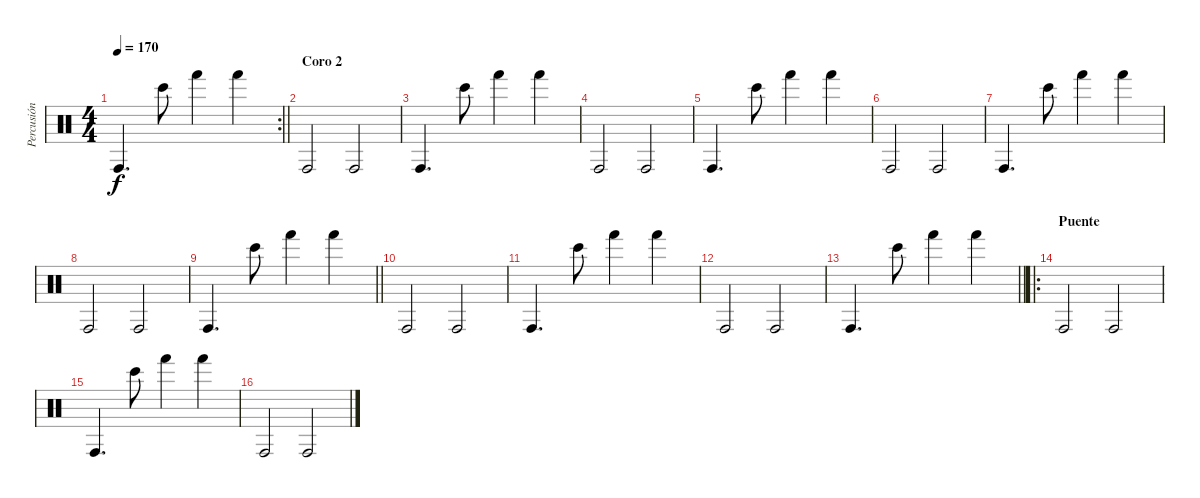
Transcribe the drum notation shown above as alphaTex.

\track ("Percusión" "Percusión") {instrument percussion}
\staff {score}
\articulation defaults
\rc 2
\ts (4 4)
\tempo 170
\clef neutral
\barLineRight lightlight
\ks c "Conga high (hit)".4{d dy f} "Bongo High (hit)".8 "Hand (hit)".4 "Hand (hit)".4
|
\section ("" "Coro 2")
"Conga high (hit)".2 "Conga high (hit)".2 |
"Conga high (hit)".4{d} "Bongo High (hit)".8 "Hand (hit)".4 "Hand (hit)".4 |
"Conga high (hit)".2 "Conga high (hit)".2 |
"Conga high (hit)".4{d} "Bongo High (hit)".8 "Hand (hit)".4 "Hand (hit)".4 |
"Conga high (hit)".2 "Conga high (hit)".2 |
"Conga high (hit)".4{d} "Bongo High (hit)".8 "Hand (hit)".4 "Hand (hit)".4 |
"Conga high (hit)".2 "Conga high (hit)".2 |
\barLineRight lightlight "Conga high (hit)".4{d} "Bongo High (hit)".8 "Hand (hit)".4 "Hand (hit)".4
|
"Conga high (hit)".2 "Conga high (hit)".2 |
"Conga high (hit)".4{d} "Bongo High (hit)".8 "Hand (hit)".4 "Hand (hit)".4 |
"Conga high (hit)".2 "Conga high (hit)".2 |
\barLineRight lightlight "Conga high (hit)".4{d} "Bongo High (hit)".8 "Hand (hit)".4 "Hand (hit)".4
|
\ro
\section ("" "Puente")
"Conga high (hit)".2 "Conga high (hit)".2 |
"Conga high (hit)".4{d} "Bongo High (hit)".8 "Hand (hit)".4 "Hand (hit)".4 |
"Conga high (hit)".2 "Conga high (hit)".2
